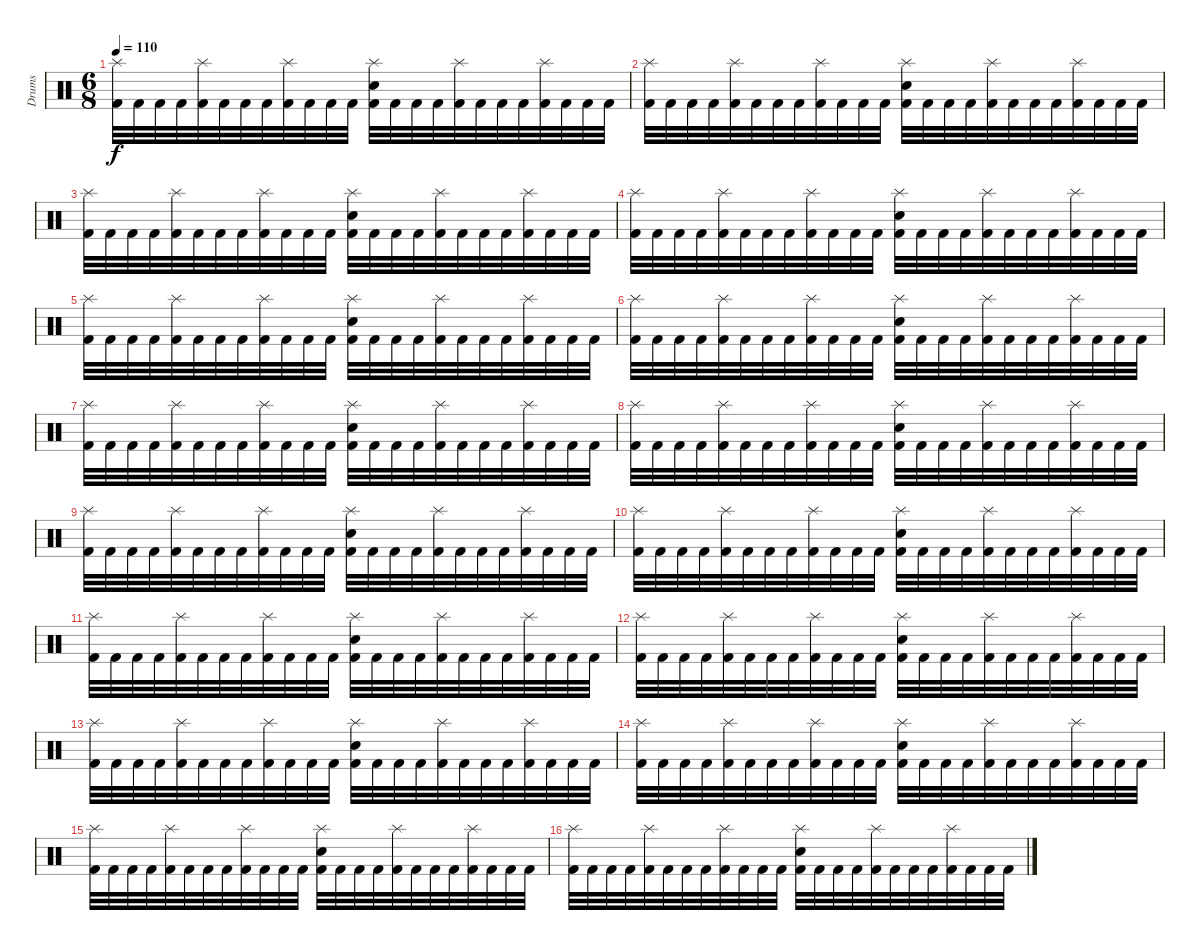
\track ("Drums" "Drums") {instrument percussion}
\staff {score}
\articulation defaults
\ts (6 8)
\tempo 110
\clef neutral
\ks c
("Splash (hit)" "Kick (hit) 2").32{dy f} "Kick (hit) 2".32 "Kick (hit) 2".32 "Kick (hit) 2".32 ("Splash (hit)" "Kick (hit) 2").32 "Kick (hit) 2".32 "Kick (hit) 2".32 "Kick (hit) 2".32 ("Splash (hit)" "Kick (hit) 2").32 "Kick (hit) 2".32 "Kick (hit) 2".32 "Kick (hit) 2".32 ("Splash (hit)" "Electric Snare (hit)" "Kick (hit) 2").32 "Kick (hit) 2".32 "Kick (hit) 2".32 "Kick (hit) 2".32 ("Splash (hit)" "Kick (hit) 2").32 "Kick (hit) 2".32 "Kick (hit) 2".32 "Kick (hit) 2".32 ("Splash (hit)" "Kick (hit) 2").32 "Kick (hit) 2".32 "Kick (hit) 2".32 "Kick (hit) 2".32 |
("Splash (hit)" "Kick (hit) 2").32 "Kick (hit) 2".32 "Kick (hit) 2".32 "Kick (hit) 2".32 ("Splash (hit)" "Kick (hit) 2").32 "Kick (hit) 2".32 "Kick (hit) 2".32 "Kick (hit) 2".32 ("Splash (hit)" "Kick (hit) 2").32 "Kick (hit) 2".32 "Kick (hit) 2".32 "Kick (hit) 2".32 ("Splash (hit)" "Electric Snare (hit)" "Kick (hit) 2").32 "Kick (hit) 2".32 "Kick (hit) 2".32 "Kick (hit) 2".32 ("Splash (hit)" "Kick (hit) 2").32 "Kick (hit) 2".32 "Kick (hit) 2".32 "Kick (hit) 2".32 ("Splash (hit)" "Kick (hit) 2").32 "Kick (hit) 2".32 "Kick (hit) 2".32 "Kick (hit) 2".32 |
("Splash (hit)" "Kick (hit) 2").32 "Kick (hit) 2".32 "Kick (hit) 2".32 "Kick (hit) 2".32 ("Splash (hit)" "Kick (hit) 2").32 "Kick (hit) 2".32 "Kick (hit) 2".32 "Kick (hit) 2".32 ("Splash (hit)" "Kick (hit) 2").32 "Kick (hit) 2".32 "Kick (hit) 2".32 "Kick (hit) 2".32 ("Splash (hit)" "Electric Snare (hit)" "Kick (hit) 2").32 "Kick (hit) 2".32 "Kick (hit) 2".32 "Kick (hit) 2".32 ("Splash (hit)" "Kick (hit) 2").32 "Kick (hit) 2".32 "Kick (hit) 2".32 "Kick (hit) 2".32 ("Splash (hit)" "Kick (hit) 2").32 "Kick (hit) 2".32 "Kick (hit) 2".32 "Kick (hit) 2".32 |
("Splash (hit)" "Kick (hit) 2").32{volume 10} "Kick (hit) 2".32 "Kick (hit) 2".32 "Kick (hit) 2".32 ("Splash (hit)" "Kick (hit) 2").32 "Kick (hit) 2".32 "Kick (hit) 2".32 "Kick (hit) 2".32 ("Splash (hit)" "Kick (hit) 2").32 "Kick (hit) 2".32 "Kick (hit) 2".32 "Kick (hit) 2".32 ("Splash (hit)" "Electric Snare (hit)" "Kick (hit) 2").32 "Kick (hit) 2".32 "Kick (hit) 2".32 "Kick (hit) 2".32 ("Splash (hit)" "Kick (hit) 2").32 "Kick (hit) 2".32 "Kick (hit) 2".32 "Kick (hit) 2".32 ("Splash (hit)" "Kick (hit) 2").32 "Kick (hit) 2".32 "Kick (hit) 2".32 "Kick (hit) 2".32 |
("Splash (hit)" "Kick (hit) 2").32 "Kick (hit) 2".32 "Kick (hit) 2".32 "Kick (hit) 2".32 ("Splash (hit)" "Kick (hit) 2").32 "Kick (hit) 2".32 "Kick (hit) 2".32 "Kick (hit) 2".32 ("Splash (hit)" "Kick (hit) 2").32 "Kick (hit) 2".32 "Kick (hit) 2".32 "Kick (hit) 2".32 ("Splash (hit)" "Electric Snare (hit)" "Kick (hit) 2").32 "Kick (hit) 2".32 "Kick (hit) 2".32 "Kick (hit) 2".32 ("Splash (hit)" "Kick (hit) 2").32 "Kick (hit) 2".32 "Kick (hit) 2".32 "Kick (hit) 2".32 ("Splash (hit)" "Kick (hit) 2").32 "Kick (hit) 2".32 "Kick (hit) 2".32 "Kick (hit) 2".32 |
("Splash (hit)" "Kick (hit) 2").32 "Kick (hit) 2".32 "Kick (hit) 2".32 "Kick (hit) 2".32 ("Splash (hit)" "Kick (hit) 2").32 "Kick (hit) 2".32 "Kick (hit) 2".32 "Kick (hit) 2".32 ("Splash (hit)" "Kick (hit) 2").32 "Kick (hit) 2".32 "Kick (hit) 2".32 "Kick (hit) 2".32 ("Splash (hit)" "Electric Snare (hit)" "Kick (hit) 2").32 "Kick (hit) 2".32 "Kick (hit) 2".32 "Kick (hit) 2".32 ("Splash (hit)" "Kick (hit) 2").32 "Kick (hit) 2".32 "Kick (hit) 2".32 "Kick (hit) 2".32 ("Splash (hit)" "Kick (hit) 2").32 "Kick (hit) 2".32 "Kick (hit) 2".32 "Kick (hit) 2".32 |
("Splash (hit)" "Kick (hit) 2").32 "Kick (hit) 2".32 "Kick (hit) 2".32 "Kick (hit) 2".32 ("Splash (hit)" "Kick (hit) 2").32 "Kick (hit) 2".32 "Kick (hit) 2".32 "Kick (hit) 2".32 ("Splash (hit)" "Kick (hit) 2").32 "Kick (hit) 2".32 "Kick (hit) 2".32 "Kick (hit) 2".32 ("Splash (hit)" "Electric Snare (hit)" "Kick (hit) 2").32 "Kick (hit) 2".32 "Kick (hit) 2".32 "Kick (hit) 2".32 ("Splash (hit)" "Kick (hit) 2").32 "Kick (hit) 2".32 "Kick (hit) 2".32 "Kick (hit) 2".32 ("Splash (hit)" "Kick (hit) 2").32 "Kick (hit) 2".32 "Kick (hit) 2".32 "Kick (hit) 2".32 |
("Splash (hit)" "Kick (hit) 2").32 "Kick (hit) 2".32 "Kick (hit) 2".32 "Kick (hit) 2".32 ("Splash (hit)" "Kick (hit) 2").32 "Kick (hit) 2".32 "Kick (hit) 2".32 "Kick (hit) 2".32 ("Splash (hit)" "Kick (hit) 2").32 "Kick (hit) 2".32 "Kick (hit) 2".32 "Kick (hit) 2".32 ("Splash (hit)" "Electric Snare (hit)" "Kick (hit) 2").32 "Kick (hit) 2".32 "Kick (hit) 2".32 "Kick (hit) 2".32 ("Splash (hit)" "Kick (hit) 2").32 "Kick (hit) 2".32 "Kick (hit) 2".32 "Kick (hit) 2".32 ("Splash (hit)" "Kick (hit) 2").32 "Kick (hit) 2".32 "Kick (hit) 2".32 "Kick (hit) 2".32 |
("Splash (hit)" "Kick (hit) 2").32 "Kick (hit) 2".32 "Kick (hit) 2".32 "Kick (hit) 2".32 ("Splash (hit)" "Kick (hit) 2").32 "Kick (hit) 2".32 "Kick (hit) 2".32 "Kick (hit) 2".32 ("Splash (hit)" "Kick (hit) 2").32 "Kick (hit) 2".32{volume 5} "Kick (hit) 2".32 "Kick (hit) 2".32 ("Splash (hit)" "Electric Snare (hit)" "Kick (hit) 2").32 "Kick (hit) 2".32 "Kick (hit) 2".32 "Kick (hit) 2".32 ("Splash (hit)" "Kick (hit) 2").32 "Kick (hit) 2".32 "Kick (hit) 2".32 "Kick (hit) 2".32 ("Splash (hit)" "Kick (hit) 2").32 "Kick (hit) 2".32 "Kick (hit) 2".32 "Kick (hit) 2".32 |
("Splash (hit)" "Kick (hit) 2").32 "Kick (hit) 2".32 "Kick (hit) 2".32 "Kick (hit) 2".32 ("Splash (hit)" "Kick (hit) 2").32 "Kick (hit) 2".32 "Kick (hit) 2".32 "Kick (hit) 2".32 ("Splash (hit)" "Kick (hit) 2").32 "Kick (hit) 2".32 "Kick (hit) 2".32 "Kick (hit) 2".32 ("Splash (hit)" "Electric Snare (hit)" "Kick (hit) 2").32 "Kick (hit) 2".32 "Kick (hit) 2".32 "Kick (hit) 2".32 ("Splash (hit)" "Kick (hit) 2").32 "Kick (hit) 2".32 "Kick (hit) 2".32 "Kick (hit) 2".32 ("Splash (hit)" "Kick (hit) 2").32 "Kick (hit) 2".32 "Kick (hit) 2".32 "Kick (hit) 2".32 |
("Splash (hit)" "Kick (hit) 2").32 "Kick (hit) 2".32 "Kick (hit) 2".32 "Kick (hit) 2".32 ("Splash (hit)" "Kick (hit) 2").32 "Kick (hit) 2".32 "Kick (hit) 2".32 "Kick (hit) 2".32 ("Splash (hit)" "Kick (hit) 2").32 "Kick (hit) 2".32 "Kick (hit) 2".32 "Kick (hit) 2".32 ("Splash (hit)" "Electric Snare (hit)" "Kick (hit) 2").32 "Kick (hit) 2".32 "Kick (hit) 2".32 "Kick (hit) 2".32 ("Splash (hit)" "Kick (hit) 2").32 "Kick (hit) 2".32 "Kick (hit) 2".32 "Kick (hit) 2".32 ("Splash (hit)" "Kick (hit) 2").32 "Kick (hit) 2".32 "Kick (hit) 2".32 "Kick (hit) 2".32 |
("Splash (hit)" "Kick (hit) 2").32 "Kick (hit) 2".32 "Kick (hit) 2".32 "Kick (hit) 2".32 ("Splash (hit)" "Kick (hit) 2").32 "Kick (hit) 2".32 "Kick (hit) 2".32 "Kick (hit) 2".32 ("Splash (hit)" "Kick (hit) 2").32 "Kick (hit) 2".32 "Kick (hit) 2".32 "Kick (hit) 2".32 ("Splash (hit)" "Electric Snare (hit)" "Kick (hit) 2").32 "Kick (hit) 2".32 "Kick (hit) 2".32 "Kick (hit) 2".32 ("Splash (hit)" "Kick (hit) 2").32 "Kick (hit) 2".32 "Kick (hit) 2".32 "Kick (hit) 2".32 ("Splash (hit)" "Kick (hit) 2").32 "Kick (hit) 2".32 "Kick (hit) 2".32 "Kick (hit) 2".32 |
("Splash (hit)" "Kick (hit) 2").32 "Kick (hit) 2".32 "Kick (hit) 2".32 "Kick (hit) 2".32 ("Splash (hit)" "Kick (hit) 2").32 "Kick (hit) 2".32 "Kick (hit) 2".32 "Kick (hit) 2".32 ("Splash (hit)" "Kick (hit) 2").32 "Kick (hit) 2".32 "Kick (hit) 2".32 "Kick (hit) 2".32 ("Splash (hit)" "Electric Snare (hit)" "Kick (hit) 2").32 "Kick (hit) 2".32 "Kick (hit) 2".32 "Kick (hit) 2".32 ("Splash (hit)" "Kick (hit) 2").32 "Kick (hit) 2".32 "Kick (hit) 2".32 "Kick (hit) 2".32 ("Splash (hit)" "Kick (hit) 2").32 "Kick (hit) 2".32 "Kick (hit) 2".32 "Kick (hit) 2".32 |
("Splash (hit)" "Kick (hit) 2").32 "Kick (hit) 2".32 "Kick (hit) 2".32 "Kick (hit) 2".32 ("Splash (hit)" "Kick (hit) 2").32 "Kick (hit) 2".32 "Kick (hit) 2".32 "Kick (hit) 2".32 ("Splash (hit)" "Kick (hit) 2").32 "Kick (hit) 2".32 "Kick (hit) 2".32 "Kick (hit) 2".32 ("Splash (hit)" "Electric Snare (hit)" "Kick (hit) 2").32 "Kick (hit) 2".32 "Kick (hit) 2".32 "Kick (hit) 2".32 ("Splash (hit)" "Kick (hit) 2").32 "Kick (hit) 2".32 "Kick (hit) 2".32{volume 0} "Kick (hit) 2".32 ("Splash (hit)" "Kick (hit) 2").32 "Kick (hit) 2".32 "Kick (hit) 2".32 "Kick (hit) 2".32 |
("Splash (hit)" "Kick (hit) 2").32 "Kick (hit) 2".32 "Kick (hit) 2".32 "Kick (hit) 2".32 ("Splash (hit)" "Kick (hit) 2").32 "Kick (hit) 2".32 "Kick (hit) 2".32 "Kick (hit) 2".32 ("Splash (hit)" "Kick (hit) 2").32 "Kick (hit) 2".32 "Kick (hit) 2".32 "Kick (hit) 2".32 ("Splash (hit)" "Electric Snare (hit)" "Kick (hit) 2").32 "Kick (hit) 2".32 "Kick (hit) 2".32 "Kick (hit) 2".32 ("Splash (hit)" "Kick (hit) 2").32 "Kick (hit) 2".32 "Kick (hit) 2".32 "Kick (hit) 2".32 ("Splash (hit)" "Kick (hit) 2").32 "Kick (hit) 2".32 "Kick (hit) 2".32 "Kick (hit) 2".32 |
("Splash (hit)" "Kick (hit) 2").32 "Kick (hit) 2".32 "Kick (hit) 2".32 "Kick (hit) 2".32 ("Splash (hit)" "Kick (hit) 2").32 "Kick (hit) 2".32 "Kick (hit) 2".32 "Kick (hit) 2".32 ("Splash (hit)" "Kick (hit) 2").32 "Kick (hit) 2".32 "Kick (hit) 2".32 "Kick (hit) 2".32 ("Splash (hit)" "Electric Snare (hit)" "Kick (hit) 2").32 "Kick (hit) 2".32 "Kick (hit) 2".32 "Kick (hit) 2".32 ("Splash (hit)" "Kick (hit) 2").32 "Kick (hit) 2".32 "Kick (hit) 2".32 "Kick (hit) 2".32 ("Splash (hit)" "Kick (hit) 2").32 "Kick (hit) 2".32 "Kick (hit) 2".32 "Kick (hit) 2".32
